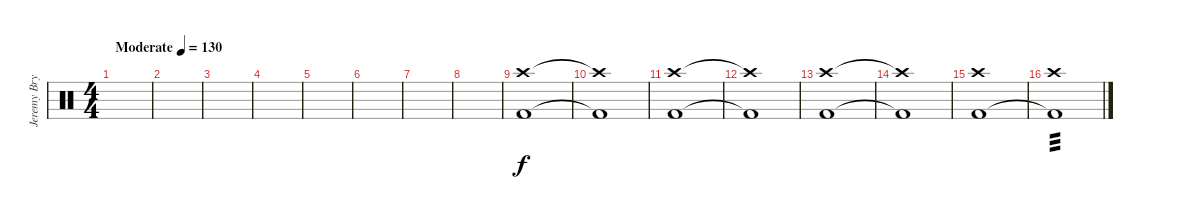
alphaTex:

\track ("Jeremy Bryan - Drums" "Jeremy Bry") {instrument percussion}
\staff {score}
\articulation defaults
\ts (4 4)
\tempo (130 "Moderate")
\clef neutral
\ks c
|
|
|
|
|
|
|
|
("Crash high (hit)" "Kick (hit) 2").1 |
("Crash high (hit)"{t} "Kick (hit) 2"{t}).1 |
("Crash high (hit)" "Kick (hit) 2").1 |
("Crash high (hit)"{t} "Kick (hit) 2"{t}).1 |
("Crash high (hit)" "Kick (hit) 2").1 |
("Crash high (hit)"{t} "Kick (hit) 2"{t}).1 |
("Crash high (hit)" "Kick (hit) 2").1 |
("Crash high (hit)" "Kick (hit) 2"{t}).1{tp 3 volume 13}
